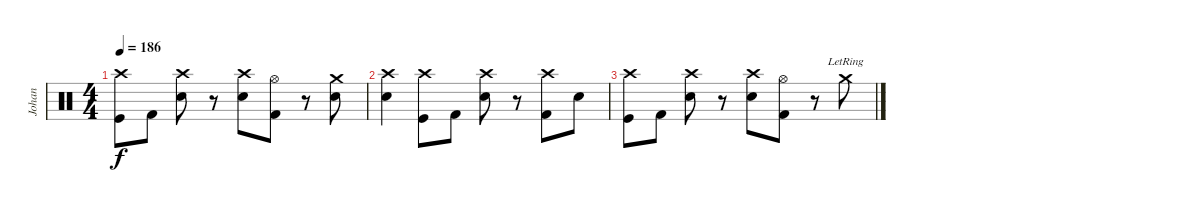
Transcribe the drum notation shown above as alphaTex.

\track ("Johan" "Johan") {instrument percussion}
\staff {score}
\articulation defaults
\ts (4 4)
\tempo 186
\clef neutral
\ks c
("Crash high (hit)" "Kick (hit)").8{dy f} "Kick (hit) 2".8 ("Crash high (hit)" "Snare (hit) 2").8 r.8 ("Crash high (hit)" "Snare (hit) 2").8 ("Hi-Hat (open)" "Kick (hit) 2").8 r.8 ("Crash medium (hit)" "Snare (hit) 2").8 |
("Crash high (hit)" "Snare (hit) 2").4 ("Crash high (hit)" "Kick (hit)").8 "Kick (hit) 2".8 ("Crash high (hit)" "Snare (hit) 2").8 r.8 ("Crash high (hit)" "Kick (hit) 2").8 "Snare (hit) 2".8 |
("Crash high (hit)" "Kick (hit)").8 "Kick (hit) 2".8 ("Crash high (hit)" "Snare (hit) 2").8 r.8 ("Crash high (hit)" "Snare (hit) 2").8 ("Hi-Hat (open)" "Kick (hit) 2").8 r.8 "Crash medium (hit)"{lr}.8
